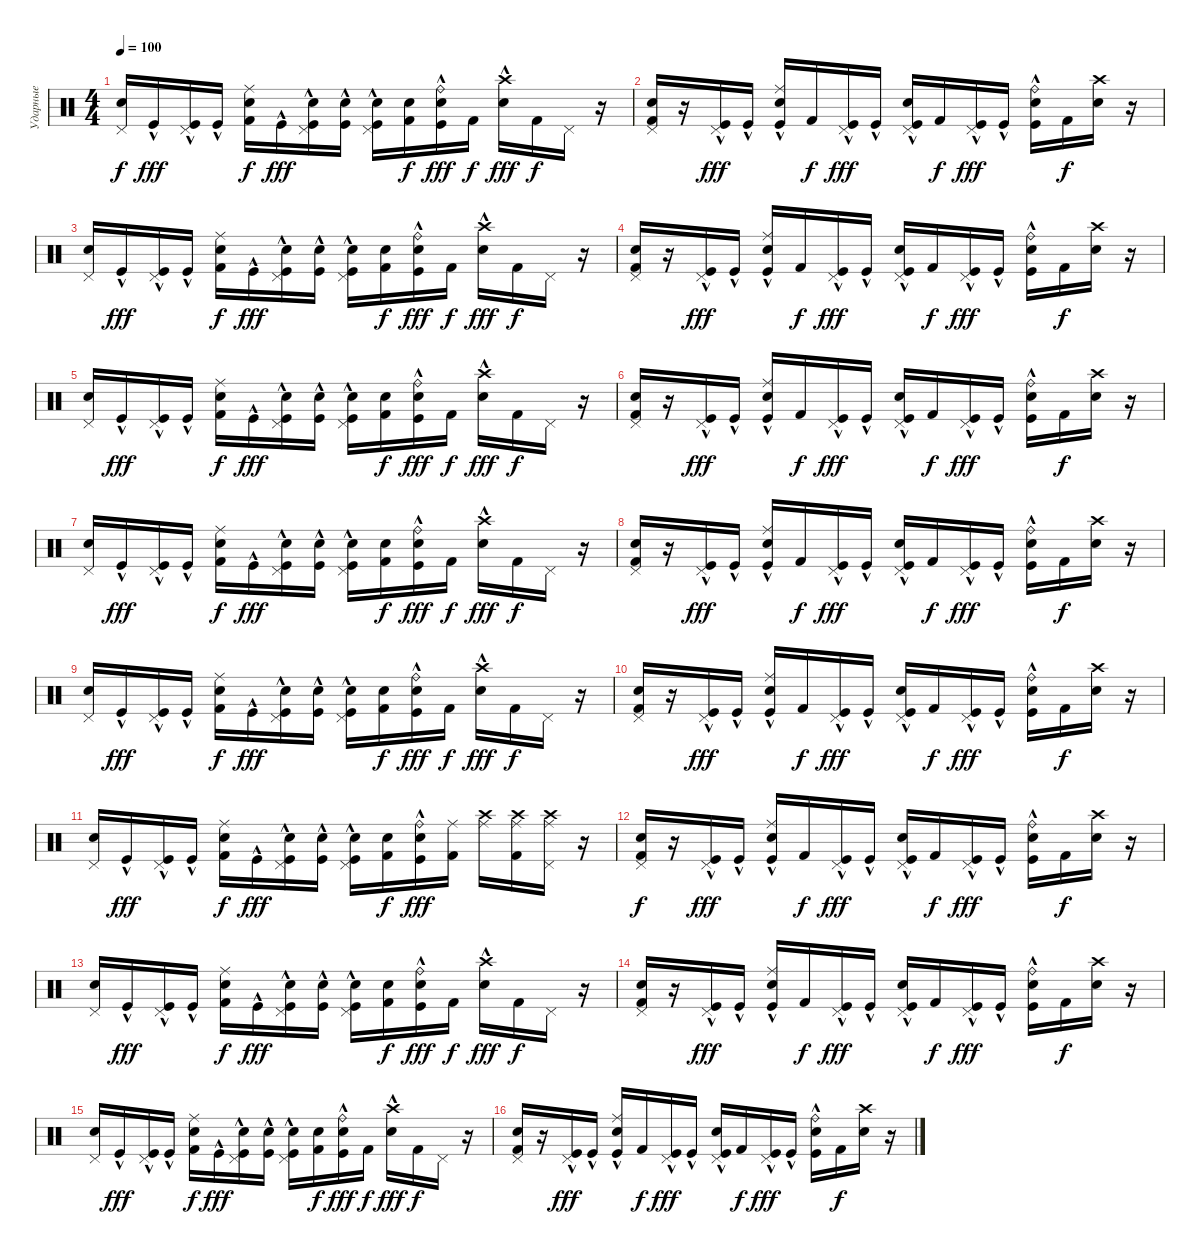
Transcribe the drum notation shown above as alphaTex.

\track ("Ударные" "Ударные") {instrument percussion}
\staff {score}
\articulation defaults
\ts (4 4)
\tempo 100
\clef neutral
\ks c
("Snare (hit) 2" "Pedal Hi-Hat (hit)").16{dy f} "Kick (hit)"{hac}.16{dy fff} ("Kick (hit)"{hac} "Pedal Hi-Hat (hit)").16 "Kick (hit)"{hac}.16 ("Electric Snare (hit)" "Kick (hit) 2" "Ride (middle)").16{dy f} "Kick (hit)"{hac}.16{dy fff} ("Snare (hit) 2" "Kick (hit)"{hac} "Pedal Hi-Hat (hit)").16 ("Snare (hit) 2" "Kick (hit)"{hac}).16 ("Snare (hit) 2" "Kick (hit)"{hac} "Pedal Hi-Hat (hit)").16 ("Snare (hit) 2" "Kick (hit) 2").16{dy f} ("Snare (hit) 2" "Kick (hit)"{hac} "Ride (bell)").16{dy fff} "Kick (hit) 2".16{dy f} ("Electric Snare (hit)"{hac} "Crash high (hit)").16{dy fff} "Kick (hit) 2".16{dy f} "Pedal Hi-Hat (hit)".16 r.16 |
("Snare (hit) 2" "Kick (hit) 2" "Pedal Hi-Hat (hit)").16 r.16 ("Kick (hit)"{hac} "Pedal Hi-Hat (hit)").16{dy fff} "Kick (hit)"{hac}.16 ("Electric Snare (hit)" "Kick (hit)"{hac} "Ride (middle)").16 "Kick (hit) 2".16{dy f} ("Kick (hit)"{hac} "Pedal Hi-Hat (hit)").16{dy fff} "Kick (hit)"{hac}.16 ("Snare (hit) 2" "Kick (hit)"{hac} "Pedal Hi-Hat (hit)").16 "Kick (hit) 2".16{dy f} ("Kick (hit)"{hac} "Pedal Hi-Hat (hit)").16{dy fff} "Kick (hit)"{hac}.16 ("Electric Snare (hit)" "Kick (hit)"{hac} "Ride (bell)").16 "Kick (hit) 2".16{dy f} ("Snare (hit) 2" "Crash high (hit)").16 r.16 |
("Snare (hit) 2" "Pedal Hi-Hat (hit)").16 "Kick (hit)"{hac}.16{dy fff} ("Kick (hit)"{hac} "Pedal Hi-Hat (hit)").16 "Kick (hit)"{hac}.16 ("Electric Snare (hit)" "Kick (hit) 2" "Ride (middle)").16{dy f} "Kick (hit)"{hac}.16{dy fff} ("Snare (hit) 2" "Kick (hit)"{hac} "Pedal Hi-Hat (hit)").16 ("Snare (hit) 2" "Kick (hit)"{hac}).16 ("Snare (hit) 2" "Kick (hit)"{hac} "Pedal Hi-Hat (hit)").16 ("Snare (hit) 2" "Kick (hit) 2").16{dy f} ("Snare (hit) 2" "Kick (hit)"{hac} "Ride (bell)").16{dy fff} "Kick (hit) 2".16{dy f} ("Electric Snare (hit)"{hac} "Crash high (hit)").16{dy fff} "Kick (hit) 2".16{dy f} "Pedal Hi-Hat (hit)".16 r.16 |
("Snare (hit) 2" "Kick (hit) 2" "Pedal Hi-Hat (hit)").16 r.16 ("Kick (hit)"{hac} "Pedal Hi-Hat (hit)").16{dy fff} "Kick (hit)"{hac}.16 ("Electric Snare (hit)" "Kick (hit)"{hac} "Ride (middle)").16 "Kick (hit) 2".16{dy f} ("Kick (hit)"{hac} "Pedal Hi-Hat (hit)").16{dy fff} "Kick (hit)"{hac}.16 ("Snare (hit) 2" "Kick (hit)"{hac} "Pedal Hi-Hat (hit)").16 "Kick (hit) 2".16{dy f} ("Kick (hit)"{hac} "Pedal Hi-Hat (hit)").16{dy fff} "Kick (hit)"{hac}.16 ("Electric Snare (hit)" "Kick (hit)"{hac} "Ride (bell)").16 "Kick (hit) 2".16{dy f} ("Snare (hit) 2" "Crash high (hit)").16 r.16 |
("Snare (hit) 2" "Pedal Hi-Hat (hit)").16 "Kick (hit)"{hac}.16{dy fff} ("Kick (hit)"{hac} "Pedal Hi-Hat (hit)").16 "Kick (hit)"{hac}.16 ("Electric Snare (hit)" "Kick (hit) 2" "Ride (middle)").16{dy f} "Kick (hit)"{hac}.16{dy fff} ("Snare (hit) 2" "Kick (hit)"{hac} "Pedal Hi-Hat (hit)").16 ("Snare (hit) 2" "Kick (hit)"{hac}).16 ("Snare (hit) 2" "Kick (hit)"{hac} "Pedal Hi-Hat (hit)").16 ("Snare (hit) 2" "Kick (hit) 2").16{dy f} ("Snare (hit) 2" "Kick (hit)"{hac} "Ride (bell)").16{dy fff} "Kick (hit) 2".16{dy f} ("Electric Snare (hit)"{hac} "Crash high (hit)").16{dy fff} "Kick (hit) 2".16{dy f} "Pedal Hi-Hat (hit)".16 r.16 |
("Snare (hit) 2" "Kick (hit) 2" "Pedal Hi-Hat (hit)").16 r.16 ("Kick (hit)"{hac} "Pedal Hi-Hat (hit)").16{dy fff} "Kick (hit)"{hac}.16 ("Electric Snare (hit)" "Kick (hit)"{hac} "Ride (middle)").16 "Kick (hit) 2".16{dy f} ("Kick (hit)"{hac} "Pedal Hi-Hat (hit)").16{dy fff} "Kick (hit)"{hac}.16 ("Snare (hit) 2" "Kick (hit)"{hac} "Pedal Hi-Hat (hit)").16 "Kick (hit) 2".16{dy f} ("Kick (hit)"{hac} "Pedal Hi-Hat (hit)").16{dy fff} "Kick (hit)"{hac}.16 ("Electric Snare (hit)" "Kick (hit)"{hac} "Ride (bell)").16 "Kick (hit) 2".16{dy f} ("Snare (hit) 2" "Crash high (hit)").16 r.16 |
("Snare (hit) 2" "Pedal Hi-Hat (hit)").16 "Kick (hit)"{hac}.16{dy fff} ("Kick (hit)"{hac} "Pedal Hi-Hat (hit)").16 "Kick (hit)"{hac}.16 ("Electric Snare (hit)" "Kick (hit) 2" "Ride (middle)").16{dy f} "Kick (hit)"{hac}.16{dy fff} ("Snare (hit) 2" "Kick (hit)"{hac} "Pedal Hi-Hat (hit)").16 ("Snare (hit) 2" "Kick (hit)"{hac}).16 ("Snare (hit) 2" "Kick (hit)"{hac} "Pedal Hi-Hat (hit)").16 ("Snare (hit) 2" "Kick (hit) 2").16{dy f} ("Snare (hit) 2" "Kick (hit)"{hac} "Ride (bell)").16{dy fff} "Kick (hit) 2".16{dy f} ("Electric Snare (hit)"{hac} "Crash high (hit)").16{dy fff} "Kick (hit) 2".16{dy f} "Pedal Hi-Hat (hit)".16 r.16 |
("Snare (hit) 2" "Kick (hit) 2" "Pedal Hi-Hat (hit)").16 r.16 ("Kick (hit)"{hac} "Pedal Hi-Hat (hit)").16{dy fff} "Kick (hit)"{hac}.16 ("Electric Snare (hit)" "Kick (hit)"{hac} "Ride (middle)").16 "Kick (hit) 2".16{dy f} ("Kick (hit)"{hac} "Pedal Hi-Hat (hit)").16{dy fff} "Kick (hit)"{hac}.16 ("Snare (hit) 2" "Kick (hit)"{hac} "Pedal Hi-Hat (hit)").16 "Kick (hit) 2".16{dy f} ("Kick (hit)"{hac} "Pedal Hi-Hat (hit)").16{dy fff} "Kick (hit)"{hac}.16 ("Electric Snare (hit)" "Kick (hit)"{hac} "Ride (bell)").16 "Kick (hit) 2".16{dy f} ("Snare (hit) 2" "Crash high (hit)").16 r.16 |
("Snare (hit) 2" "Pedal Hi-Hat (hit)").16 "Kick (hit)"{hac}.16{dy fff} ("Kick (hit)"{hac} "Pedal Hi-Hat (hit)").16 "Kick (hit)"{hac}.16 ("Electric Snare (hit)" "Kick (hit) 2" "Ride (middle)").16{dy f} "Kick (hit)"{hac}.16{dy fff} ("Snare (hit) 2" "Kick (hit)"{hac} "Pedal Hi-Hat (hit)").16 ("Snare (hit) 2" "Kick (hit)"{hac}).16 ("Snare (hit) 2" "Kick (hit)"{hac} "Pedal Hi-Hat (hit)").16 ("Snare (hit) 2" "Kick (hit) 2").16{dy f} ("Snare (hit) 2" "Kick (hit)"{hac} "Ride (bell)").16{dy fff} "Kick (hit) 2".16{dy f} ("Electric Snare (hit)"{hac} "Crash high (hit)").16{dy fff} "Kick (hit) 2".16{dy f} "Pedal Hi-Hat (hit)".16 r.16 |
("Snare (hit) 2" "Kick (hit) 2" "Pedal Hi-Hat (hit)").16 r.16 ("Kick (hit)"{hac} "Pedal Hi-Hat (hit)").16{dy fff} "Kick (hit)"{hac}.16 ("Electric Snare (hit)" "Kick (hit)"{hac} "Ride (middle)").16 "Kick (hit) 2".16{dy f} ("Kick (hit)"{hac} "Pedal Hi-Hat (hit)").16{dy fff} "Kick (hit)"{hac}.16 ("Snare (hit) 2" "Kick (hit)"{hac} "Pedal Hi-Hat (hit)").16 "Kick (hit) 2".16{dy f} ("Kick (hit)"{hac} "Pedal Hi-Hat (hit)").16{dy fff} "Kick (hit)"{hac}.16 ("Electric Snare (hit)" "Kick (hit)"{hac} "Ride (bell)").16 "Kick (hit) 2".16{dy f} ("Snare (hit) 2" "Crash high (hit)").16 r.16 |
("Snare (hit) 2" "Pedal Hi-Hat (hit)").16 "Kick (hit)"{hac}.16{dy fff} ("Kick (hit)"{hac} "Pedal Hi-Hat (hit)").16 "Kick (hit)"{hac}.16 ("Electric Snare (hit)" "Kick (hit) 2" "Ride (middle)").16{dy f} "Kick (hit)"{hac}.16{dy fff} ("Snare (hit) 2" "Kick (hit)"{hac} "Pedal Hi-Hat (hit)").16 ("Snare (hit) 2" "Kick (hit)"{hac}).16 ("Snare (hit) 2" "Kick (hit)"{hac} "Pedal Hi-Hat (hit)").16 ("Snare (hit) 2" "Kick (hit) 2").16{dy f} ("Snare (hit) 2" "Kick (hit)"{hac} "Ride (bell)").16{dy fff} ("Kick (hit) 2" "Ride (middle)").16 ("Crash high (hit)" "Ride (middle)").16 ("Kick (hit) 2" "Crash high (hit)" "Ride (middle)").16 ("Pedal Hi-Hat (hit)" "Crash high (hit)" "Ride (middle)").16 r.16 |
("Snare (hit) 2" "Kick (hit) 2" "Pedal Hi-Hat (hit)").16{dy f} r.16 ("Kick (hit)"{hac} "Pedal Hi-Hat (hit)").16{dy fff} "Kick (hit)"{hac}.16 ("Electric Snare (hit)" "Kick (hit)"{hac} "Ride (middle)").16 "Kick (hit) 2".16{dy f} ("Kick (hit)"{hac} "Pedal Hi-Hat (hit)").16{dy fff} "Kick (hit)"{hac}.16 ("Snare (hit) 2" "Kick (hit)"{hac} "Pedal Hi-Hat (hit)").16 "Kick (hit) 2".16{dy f} ("Kick (hit)"{hac} "Pedal Hi-Hat (hit)").16{dy fff} "Kick (hit)"{hac}.16 ("Electric Snare (hit)" "Kick (hit)"{hac} "Ride (bell)").16 "Kick (hit) 2".16{dy f} ("Snare (hit) 2" "Crash high (hit)").16 r.16 |
("Snare (hit) 2" "Pedal Hi-Hat (hit)").16 "Kick (hit)"{hac}.16{dy fff} ("Kick (hit)"{hac} "Pedal Hi-Hat (hit)").16 "Kick (hit)"{hac}.16 ("Electric Snare (hit)" "Kick (hit) 2" "Ride (middle)").16{dy f} "Kick (hit)"{hac}.16{dy fff} ("Snare (hit) 2" "Kick (hit)"{hac} "Pedal Hi-Hat (hit)").16 ("Snare (hit) 2" "Kick (hit)"{hac}).16 ("Snare (hit) 2" "Kick (hit)"{hac} "Pedal Hi-Hat (hit)").16 ("Snare (hit) 2" "Kick (hit) 2").16{dy f} ("Snare (hit) 2" "Kick (hit)"{hac} "Ride (bell)").16{dy fff} "Kick (hit) 2".16{dy f} ("Electric Snare (hit)"{hac} "Crash high (hit)").16{dy fff} "Kick (hit) 2".16{dy f} "Pedal Hi-Hat (hit)".16 r.16 |
("Snare (hit) 2" "Kick (hit) 2" "Pedal Hi-Hat (hit)").16 r.16 ("Kick (hit)"{hac} "Pedal Hi-Hat (hit)").16{dy fff} "Kick (hit)"{hac}.16 ("Electric Snare (hit)" "Kick (hit)"{hac} "Ride (middle)").16 "Kick (hit) 2".16{dy f} ("Kick (hit)"{hac} "Pedal Hi-Hat (hit)").16{dy fff} "Kick (hit)"{hac}.16 ("Snare (hit) 2" "Kick (hit)"{hac} "Pedal Hi-Hat (hit)").16 "Kick (hit) 2".16{dy f} ("Kick (hit)"{hac} "Pedal Hi-Hat (hit)").16{dy fff} "Kick (hit)"{hac}.16 ("Electric Snare (hit)" "Kick (hit)"{hac} "Ride (bell)").16 "Kick (hit) 2".16{dy f} ("Snare (hit) 2" "Crash high (hit)").16 r.16 |
("Snare (hit) 2" "Pedal Hi-Hat (hit)").16 "Kick (hit)"{hac}.16{dy fff} ("Kick (hit)"{hac} "Pedal Hi-Hat (hit)").16 "Kick (hit)"{hac}.16 ("Electric Snare (hit)" "Kick (hit) 2" "Ride (middle)").16{dy f} "Kick (hit)"{hac}.16{dy fff} ("Snare (hit) 2" "Kick (hit)"{hac} "Pedal Hi-Hat (hit)").16 ("Snare (hit) 2" "Kick (hit)"{hac}).16 ("Snare (hit) 2" "Kick (hit)"{hac} "Pedal Hi-Hat (hit)").16 ("Snare (hit) 2" "Kick (hit) 2").16{dy f} ("Snare (hit) 2" "Kick (hit)"{hac} "Ride (bell)").16{dy fff} "Kick (hit) 2".16{dy f} ("Electric Snare (hit)"{hac} "Crash high (hit)").16{dy fff} "Kick (hit) 2".16{dy f} "Pedal Hi-Hat (hit)".16 r.16 |
("Snare (hit) 2" "Kick (hit) 2" "Pedal Hi-Hat (hit)").16 r.16 ("Kick (hit)"{hac} "Pedal Hi-Hat (hit)").16{dy fff} "Kick (hit)"{hac}.16 ("Electric Snare (hit)" "Kick (hit)"{hac} "Ride (middle)").16 "Kick (hit) 2".16{dy f} ("Kick (hit)"{hac} "Pedal Hi-Hat (hit)").16{dy fff} "Kick (hit)"{hac}.16 ("Snare (hit) 2" "Kick (hit)"{hac} "Pedal Hi-Hat (hit)").16 "Kick (hit) 2".16{dy f} ("Kick (hit)"{hac} "Pedal Hi-Hat (hit)").16{dy fff} "Kick (hit)"{hac}.16 ("Electric Snare (hit)" "Kick (hit)"{hac} "Ride (bell)").16 "Kick (hit) 2".16{dy f} ("Snare (hit) 2" "Crash high (hit)").16 r.16
